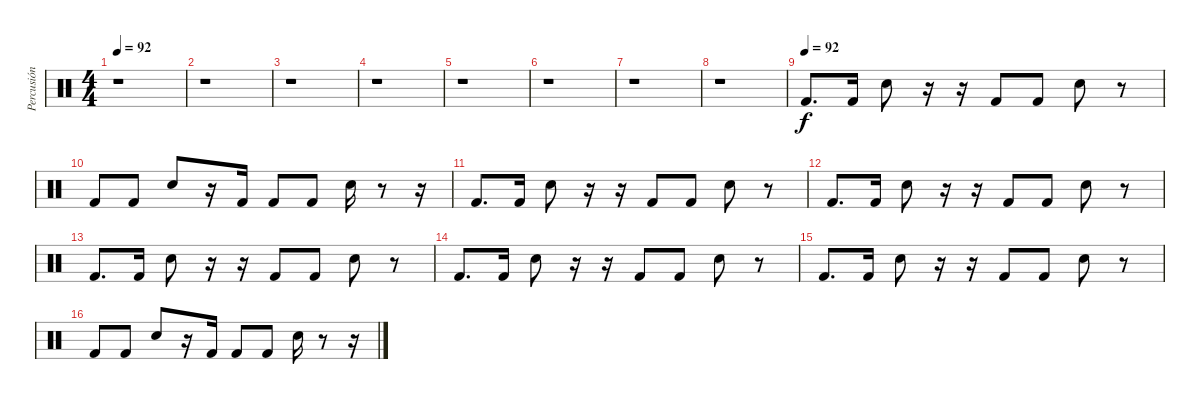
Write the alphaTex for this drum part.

\track ("Percusión" "Percusión") {instrument percussion}
\staff {score}
\articulation defaults
\ts (4 4)
\tempo 92
\tempo 82
\tempo 92
\clef neutral
\ks c
r.1{dy f} |
r.1 |
r.1 |
r.1 |
r.1 |
r.1 |
r.1 |
r.1 |
\tempo (92)
"Kick (hit) 2".8{d} "Kick (hit) 2".16 "Snare (hit) 2".8 r.16 r.16 "Kick (hit) 2".8 "Kick (hit) 2".8 "Snare (hit) 2".8 r.8 |
"Kick (hit) 2".8 "Kick (hit) 2".8 "Snare (hit) 2".8 r.16 "Kick (hit) 2".16 "Kick (hit) 2".8 "Kick (hit) 2".8 "Snare (hit) 2".16 r.8 r.16 |
"Kick (hit) 2".8{d} "Kick (hit) 2".16 "Snare (hit) 2".8 r.16 r.16 "Kick (hit) 2".8 "Kick (hit) 2".8 "Snare (hit) 2".8 r.8 |
"Kick (hit) 2".8{d} "Kick (hit) 2".16 "Snare (hit) 2".8 r.16 r.16 "Kick (hit) 2".8 "Kick (hit) 2".8 "Snare (hit) 2".8 r.8 |
"Kick (hit) 2".8{d} "Kick (hit) 2".16 "Snare (hit) 2".8 r.16 r.16 "Kick (hit) 2".8 "Kick (hit) 2".8 "Snare (hit) 2".8 r.8 |
"Kick (hit) 2".8{d} "Kick (hit) 2".16 "Snare (hit) 2".8 r.16 r.16 "Kick (hit) 2".8 "Kick (hit) 2".8 "Snare (hit) 2".8 r.8 |
"Kick (hit) 2".8{d} "Kick (hit) 2".16 "Snare (hit) 2".8 r.16 r.16 "Kick (hit) 2".8 "Kick (hit) 2".8 "Snare (hit) 2".8 r.8 |
"Kick (hit) 2".8 "Kick (hit) 2".8 "Snare (hit) 2".8 r.16 "Kick (hit) 2".16 "Kick (hit) 2".8 "Kick (hit) 2".8 "Snare (hit) 2".16 r.8 r.16
